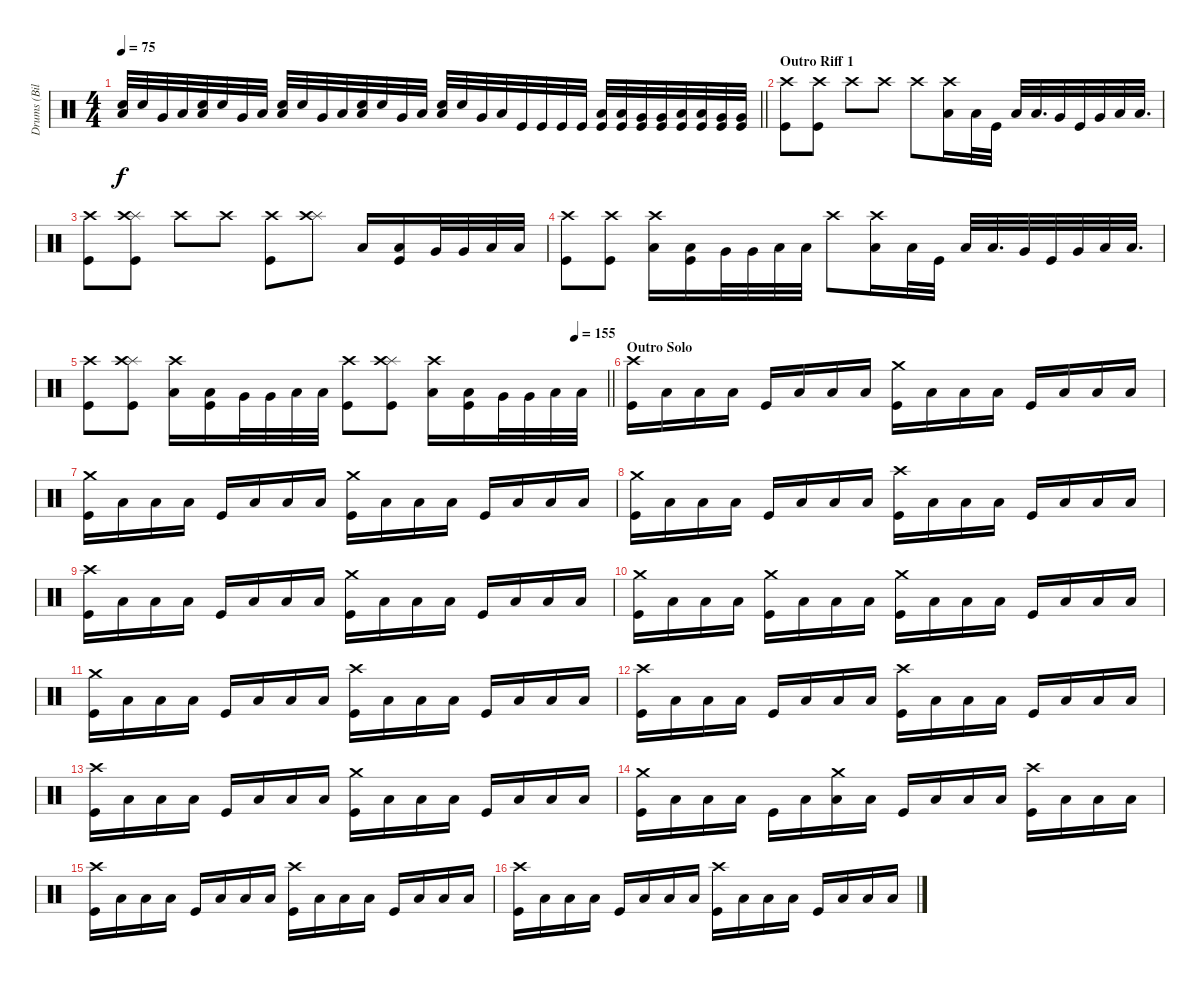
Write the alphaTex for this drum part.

\track ("Drums (Bill Ward)" "Drums (Bil") {instrument percussion}
\staff {score}
\articulation defaults
\ts (4 4)
\tempo 75
\clef neutral
\barLineRight lightlight
\ks c
("Low Tom (hit)" "Electric Snare (hit)").32{dy f volume 14} "Electric Snare (hit)".32 "Very Low Tom (hit)".32 "Low Floor Tom (hit)".32 ("Low Tom (hit)" "Electric Snare (hit)").32 "Electric Snare (hit)".32 "Very Low Tom (hit)".32 "Low Floor Tom (hit)".32 ("Low Tom (hit)" "Electric Snare (hit)").32 "Electric Snare (hit)".32 "Very Low Tom (hit)".32 "Low Floor Tom (hit)".32 ("Low Tom (hit)" "Electric Snare (hit)").32 "Electric Snare (hit)".32 "Very Low Tom (hit)".32 "Low Floor Tom (hit)".32 ("Low Tom (hit)" "Electric Snare (hit)").32 "Electric Snare (hit)".32 "Very Low Tom (hit)".32 "Low Floor Tom (hit)".32 "Kick (hit)".32 "Kick (hit)".32 "Kick (hit)".32 "Kick (hit)".32 ("Low Floor Tom (hit)" "Kick (hit)").32 ("Low Floor Tom (hit)" "Kick (hit)").32 ("Very Low Tom (hit)" "Kick (hit)").32 ("Very Low Tom (hit)" "Kick (hit)").32 ("Low Floor Tom (hit)" "Kick (hit)").32 ("Low Floor Tom (hit)" "Kick (hit)").32 ("Very Low Tom (hit)" "Kick (hit)").32 ("Very Low Tom (hit)" "Kick (hit)").32 |
\section ("" "Outro Riff 1")
("Crash high (hit)" "Kick (hit)").8{volume 12} ("Crash high (hit)" "Kick (hit)").8 "Crash high (hit)".8 "Crash high (hit)".8 "Crash high (hit)".8 ("Crash high (hit)" "Low Tom (hit)").16 "Low Tom (hit)".32 "Kick (hit)".32 "Low Tom (hit)".32 "Low Tom (hit)".32{d} "Very Low Tom (hit)".32 "Kick (hit)".32 "Very Low Tom (hit)".32 "Low Floor Tom (hit)".32 "Low Floor Tom (hit)".32{d} |
("Crash high (hit)" "Kick (hit)").8 ("Splash (hit)" "Crash high (hit)" "Kick (hit)").8 "Crash high (hit)".8 "Crash high (hit)".8 ("Crash high (hit)" "Kick (hit)").8 ("Splash (hit)" "Crash high (hit)").8 "Low Tom (hit)".16 ("Low Tom (hit)" "Kick (hit)").16 "Very Low Tom (hit)".32 "Very Low Tom (hit)".32 "Low Floor Tom (hit)".32 "Low Floor Tom (hit)".32 |
("Crash high (hit)" "Kick (hit)").8 ("Crash high (hit)" "Kick (hit)").8 ("Crash high (hit)" "Low Tom (hit)").16 ("Low Tom (hit)" "Kick (hit)").16 "Very Low Tom (hit)".32 "Very Low Tom (hit)".32 "Low Floor Tom (hit)".32 "Low Floor Tom (hit)".32 "Crash high (hit)".8 ("Crash high (hit)" "Low Tom (hit)").16 "Low Tom (hit)".32 "Kick (hit)".32 "Low Tom (hit)".32 "Low Tom (hit)".32{d} "Very Low Tom (hit)".32 "Kick (hit)".32 "Very Low Tom (hit)".32 "Low Floor Tom (hit)".32 "Low Floor Tom (hit)".32{d} |
\tempo (155 0.9375)
\barLineRight lightlight
("Crash high (hit)" "Kick (hit)").8 ("Splash (hit)" "Crash high (hit)" "Kick (hit)").8 ("Crash high (hit)" "Low Tom (hit)").16 ("Low Tom (hit)" "Kick (hit)").16 "Very Low Tom (hit)".32 "Very Low Tom (hit)".32 "Low Floor Tom (hit)".32 "Low Floor Tom (hit)".32 ("Crash high (hit)" "Kick (hit)").8 ("Splash (hit)" "Crash high (hit)" "Kick (hit)").8 ("Crash high (hit)" "Low Tom (hit)").16 ("Low Tom (hit)" "Kick (hit)").16 "Very Low Tom (hit)".32 "Very Low Tom (hit)".32 "Low Floor Tom (hit)".32 "Low Floor Tom (hit)".32 |
\section ("" "Outro Solo")
("Crash high (hit)" "Kick (hit)").16{volume 12} "Low Tom (hit)".16 "Low Tom (hit)".16 "Low Tom (hit)".16 "Kick (hit)".16 "Low Tom (hit)".16 "Low Tom (hit)".16 "Low Tom (hit)".16 ("Crash medium (hit)" "Kick (hit)").16 "Low Tom (hit)".16 "Low Tom (hit)".16 "Low Tom (hit)".16 "Kick (hit)".16 "Low Tom (hit)".16 "Low Tom (hit)".16 "Low Tom (hit)".16 |
("Crash medium (hit)" "Kick (hit)").16 "Low Tom (hit)".16 "Low Tom (hit)".16 "Low Tom (hit)".16 "Kick (hit)".16 "Low Tom (hit)".16 "Low Tom (hit)".16 "Low Tom (hit)".16 ("Crash medium (hit)" "Kick (hit)").16 "Low Tom (hit)".16 "Low Tom (hit)".16 "Low Tom (hit)".16 "Kick (hit)".16 "Low Tom (hit)".16 "Low Tom (hit)".16 "Low Tom (hit)".16 |
("Crash medium (hit)" "Kick (hit)").16 "Low Tom (hit)".16 "Low Tom (hit)".16 "Low Tom (hit)".16 "Kick (hit)".16 "Low Tom (hit)".16 "Low Tom (hit)".16 "Low Tom (hit)".16 ("Crash high (hit)" "Kick (hit)").16 "Low Tom (hit)".16 "Low Tom (hit)".16 "Low Tom (hit)".16 "Kick (hit)".16 "Low Tom (hit)".16 "Low Tom (hit)".16 "Low Tom (hit)".16 |
("Crash high (hit)" "Kick (hit)").16 "Low Tom (hit)".16 "Low Tom (hit)".16 "Low Tom (hit)".16 "Kick (hit)".16 "Low Tom (hit)".16 "Low Tom (hit)".16 "Low Tom (hit)".16 ("Crash medium (hit)" "Kick (hit)").16 "Low Tom (hit)".16 "Low Tom (hit)".16 "Low Tom (hit)".16 "Kick (hit)".16 "Low Tom (hit)".16 "Low Tom (hit)".16 "Low Tom (hit)".16 |
("Crash medium (hit)" "Kick (hit)").16 "Low Tom (hit)".16 "Low Tom (hit)".16 "Low Tom (hit)".16 ("Crash medium (hit)" "Kick (hit)").16 "Low Tom (hit)".16 "Low Tom (hit)".16 "Low Tom (hit)".16 ("Crash medium (hit)" "Kick (hit)").16 "Low Tom (hit)".16 "Low Tom (hit)".16 "Low Tom (hit)".16 "Kick (hit)".16 "Low Tom (hit)".16 "Low Tom (hit)".16 "Low Tom (hit)".16 |
("Crash medium (hit)" "Kick (hit)").16 "Low Tom (hit)".16 "Low Tom (hit)".16 "Low Tom (hit)".16 "Kick (hit)".16 "Low Tom (hit)".16 "Low Tom (hit)".16 "Low Tom (hit)".16 ("Crash high (hit)" "Kick (hit)").16 "Low Tom (hit)".16 "Low Tom (hit)".16 "Low Tom (hit)".16 "Kick (hit)".16 "Low Tom (hit)".16 "Low Tom (hit)".16 "Low Tom (hit)".16 |
("Crash high (hit)" "Kick (hit)").16 "Low Tom (hit)".16 "Low Tom (hit)".16 "Low Tom (hit)".16 "Kick (hit)".16 "Low Tom (hit)".16 "Low Tom (hit)".16 "Low Tom (hit)".16 ("Crash high (hit)" "Kick (hit)").16 "Low Tom (hit)".16 "Low Tom (hit)".16 "Low Tom (hit)".16 "Kick (hit)".16 "Low Tom (hit)".16 "Low Tom (hit)".16 "Low Tom (hit)".16 |
("Crash high (hit)" "Kick (hit)").16 "Low Tom (hit)".16 "Low Tom (hit)".16 "Low Tom (hit)".16 "Kick (hit)".16 "Low Tom (hit)".16 "Low Tom (hit)".16 "Low Tom (hit)".16 ("Crash medium (hit)" "Kick (hit)").16 "Low Tom (hit)".16 "Low Tom (hit)".16 "Low Tom (hit)".16 "Kick (hit)".16 "Low Tom (hit)".16 "Low Tom (hit)".16 "Low Tom (hit)".16 |
("Crash medium (hit)" "Kick (hit)").16 "Low Tom (hit)".16 "Low Tom (hit)".16 "Low Tom (hit)".16 "Kick (hit)".16 "Low Tom (hit)".16 ("Crash medium (hit)" "Low Tom (hit)").16 "Low Tom (hit)".16 "Kick (hit)".16 "Low Tom (hit)".16 "Low Tom (hit)".16 "Low Tom (hit)".16 ("Crash high (hit)" "Kick (hit)").16 "Low Tom (hit)".16 "Low Tom (hit)".16 "Low Tom (hit)".16 |
("Crash high (hit)" "Kick (hit)").16 "Low Tom (hit)".16 "Low Tom (hit)".16 "Low Tom (hit)".16 "Kick (hit)".16 "Low Tom (hit)".16 "Low Tom (hit)".16 "Low Tom (hit)".16 ("Crash high (hit)" "Kick (hit)").16 "Low Tom (hit)".16 "Low Tom (hit)".16 "Low Tom (hit)".16 "Kick (hit)".16 "Low Tom (hit)".16 "Low Tom (hit)".16 "Low Tom (hit)".16 |
("Crash high (hit)" "Kick (hit)").16 "Low Tom (hit)".16 "Low Tom (hit)".16 "Low Tom (hit)".16 "Kick (hit)".16 "Low Tom (hit)".16 "Low Tom (hit)".16 "Low Tom (hit)".16 ("Crash high (hit)" "Kick (hit)").16 "Low Tom (hit)".16 "Low Tom (hit)".16 "Low Tom (hit)".16 "Kick (hit)".16 "Low Tom (hit)".16 "Low Tom (hit)".16 "Low Tom (hit)".16
